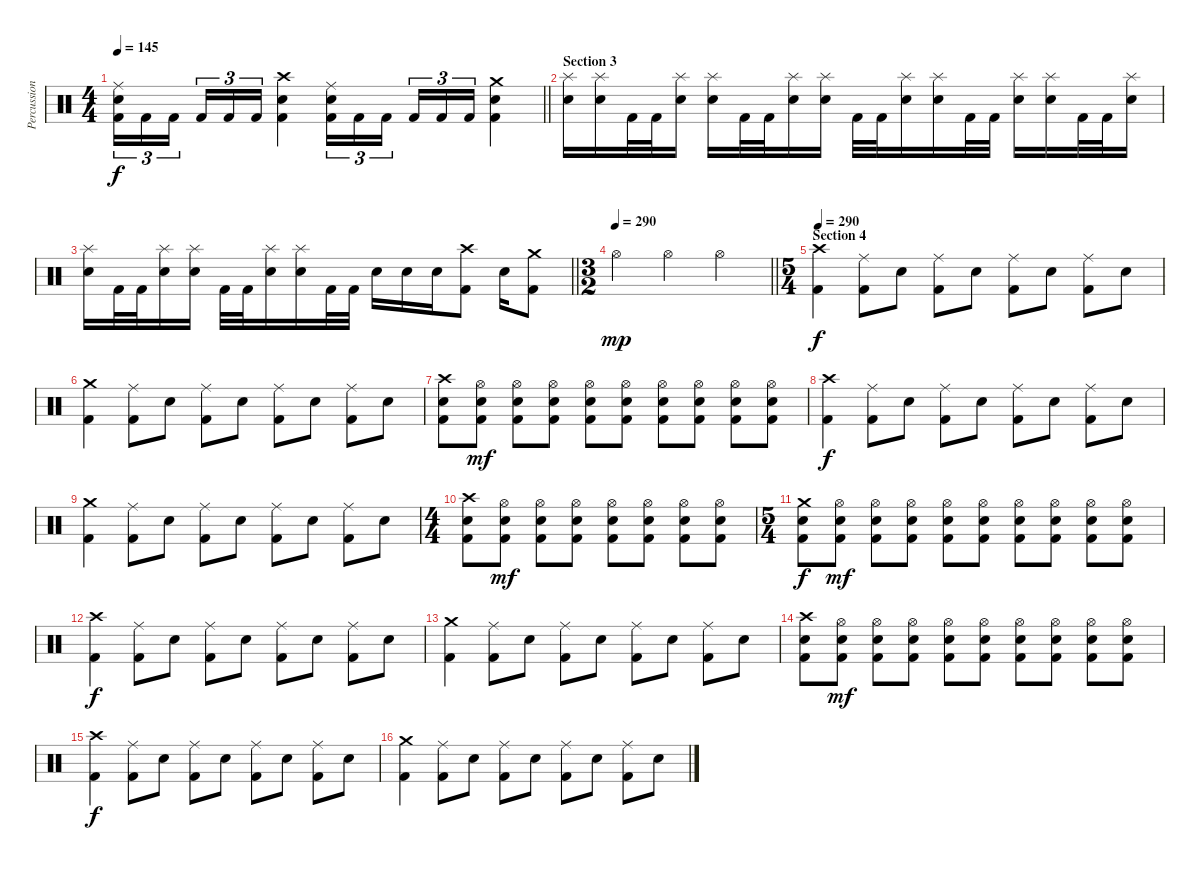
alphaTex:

\track ("Percussion" "Percussion") {instrument percussion}
\staff {score}
\articulation defaults
\ts (4 4)
\tempo 145
\clef neutral
\barLineRight lightlight
\ks c
("Ride (middle)" "Electric Snare (hit)" "Kick (hit) 2").16{tu (3 2) dy f} "Kick (hit) 2".16{tu (3 2)} "Kick (hit) 2".16{tu (3 2) beam splitsecondary} "Kick (hit) 2".16{tu (3 2)} "Kick (hit) 2".16{tu (3 2)} "Kick (hit) 2".16{tu (3 2)} ("Crash high (hit)" "Electric Snare (hit)" "Kick (hit) 2").4 ("Ride (middle)" "Electric Snare (hit)" "Kick (hit) 2").16{tu (3 2)} "Kick (hit) 2".16{tu (3 2)} "Kick (hit) 2".16{tu (3 2) beam splitsecondary} "Kick (hit) 2".16{tu (3 2)} "Kick (hit) 2".16{tu (3 2)} "Kick (hit) 2".16{tu (3 2)} ("Crash medium (hit)" "Electric Snare (hit)" "Kick (hit) 2").4 |
\section ("" "Section 3")
("Splash (hit)" "Electric Snare (hit)").16 ("Splash (hit)" "Electric Snare (hit)").16 "Kick (hit) 2".32 "Kick (hit) 2".32 ("Splash (hit)" "Electric Snare (hit)").16 ("Splash (hit)" "Electric Snare (hit)").16 "Kick (hit) 2".32 "Kick (hit) 2".32 ("Splash (hit)" "Electric Snare (hit)").16 ("Splash (hit)" "Electric Snare (hit)").16 "Kick (hit) 2".32 "Kick (hit) 2".32 ("Splash (hit)" "Electric Snare (hit)").16 ("Splash (hit)" "Electric Snare (hit)").16 "Kick (hit) 2".32 "Kick (hit) 2".32 ("Splash (hit)" "Electric Snare (hit)").16 ("Splash (hit)" "Electric Snare (hit)").16 "Kick (hit) 2".32 "Kick (hit) 2".32 ("Splash (hit)" "Electric Snare (hit)").16 |
\barLineRight lightlight
("Splash (hit)" "Electric Snare (hit)").16 "Kick (hit) 2".32 "Kick (hit) 2".32 ("Splash (hit)" "Electric Snare (hit)").16 ("Splash (hit)" "Electric Snare (hit)").16 "Kick (hit) 2".32 "Kick (hit) 2".32 ("Splash (hit)" "Electric Snare (hit)").16 ("Splash (hit)" "Electric Snare (hit)").16 "Kick (hit) 2".32 "Kick (hit) 2".32 "Electric Snare (hit)".16 "Electric Snare (hit)".16 "Electric Snare (hit)".16 ("Crash high (hit)" "Kick (hit) 2").8 "Electric Snare (hit)".16 ("Crash medium (hit)" "Kick (hit) 2").8 |
\ts (3 2)
\tempo 290
\barLineRight lightlight "Hi-Hat (open)".2{dy mp} "Hi-Hat (open)".2 "Hi-Hat (open)".2
|
\ts (5 4)
\section ("" "Section 4")
\tempo 290
("Crash high (hit)" "Kick (hit) 2").4{dy f} ("Ride (middle)" "Kick (hit) 2").8 "Electric Snare (hit)".8 ("Ride (middle)" "Kick (hit) 2").8 "Electric Snare (hit)".8 ("Ride (middle)" "Kick (hit) 2").8 "Electric Snare (hit)".8 ("Ride (middle)" "Kick (hit) 2").8 "Electric Snare (hit)".8 |
("Crash medium (hit)" "Kick (hit) 2").4 ("Ride (middle)" "Kick (hit) 2").8 "Electric Snare (hit)".8 ("Ride (middle)" "Kick (hit) 2").8 "Electric Snare (hit)".8 ("Ride (middle)" "Kick (hit) 2").8 "Electric Snare (hit)".8 ("Ride (middle)" "Kick (hit) 2").8 "Electric Snare (hit)".8 |
("Crash high (hit)" "Electric Snare (hit)" "Kick (hit) 2").8 ("Hi-Hat (open)" "Electric Snare (hit)" "Kick (hit) 2").8{dy mf} ("Hi-Hat (open)" "Electric Snare (hit)" "Kick (hit) 2").8 ("Hi-Hat (open)" "Electric Snare (hit)" "Kick (hit) 2").8 ("Hi-Hat (open)" "Electric Snare (hit)" "Kick (hit) 2").8 ("Hi-Hat (open)" "Electric Snare (hit)" "Kick (hit) 2").8 ("Hi-Hat (open)" "Electric Snare (hit)" "Kick (hit) 2").8 ("Hi-Hat (open)" "Electric Snare (hit)" "Kick (hit) 2").8 ("Hi-Hat (open)" "Electric Snare (hit)" "Kick (hit) 2").8 ("Hi-Hat (open)" "Electric Snare (hit)" "Kick (hit) 2").8 |
("Crash high (hit)" "Kick (hit) 2").4{dy f} ("Ride (middle)" "Kick (hit) 2").8 "Electric Snare (hit)".8 ("Ride (middle)" "Kick (hit) 2").8 "Electric Snare (hit)".8 ("Ride (middle)" "Kick (hit) 2").8 "Electric Snare (hit)".8 ("Ride (middle)" "Kick (hit) 2").8 "Electric Snare (hit)".8 |
("Crash medium (hit)" "Kick (hit) 2").4 ("Ride (middle)" "Kick (hit) 2").8 "Electric Snare (hit)".8 ("Ride (middle)" "Kick (hit) 2").8 "Electric Snare (hit)".8 ("Ride (middle)" "Kick (hit) 2").8 "Electric Snare (hit)".8 ("Ride (middle)" "Kick (hit) 2").8 "Electric Snare (hit)".8 |
\ts (4 4)
("Crash high (hit)" "Electric Snare (hit)" "Kick (hit) 2").8 ("Hi-Hat (open)" "Electric Snare (hit)" "Kick (hit) 2").8{dy mf} ("Hi-Hat (open)" "Electric Snare (hit)" "Kick (hit) 2").8 ("Hi-Hat (open)" "Electric Snare (hit)" "Kick (hit) 2").8 ("Hi-Hat (open)" "Electric Snare (hit)" "Kick (hit) 2").8 ("Hi-Hat (open)" "Electric Snare (hit)" "Kick (hit) 2").8 ("Hi-Hat (open)" "Electric Snare (hit)" "Kick (hit) 2").8 ("Hi-Hat (open)" "Electric Snare (hit)" "Kick (hit) 2").8 |
\ts (5 4)
("Crash medium (hit)" "Electric Snare (hit)" "Kick (hit) 2").8{dy f} ("Hi-Hat (open)" "Electric Snare (hit)" "Kick (hit) 2").8{dy mf} ("Hi-Hat (open)" "Electric Snare (hit)" "Kick (hit) 2").8 ("Hi-Hat (open)" "Electric Snare (hit)" "Kick (hit) 2").8 ("Hi-Hat (open)" "Electric Snare (hit)" "Kick (hit) 2").8 ("Hi-Hat (open)" "Electric Snare (hit)" "Kick (hit) 2").8 ("Hi-Hat (open)" "Electric Snare (hit)" "Kick (hit) 2").8 ("Hi-Hat (open)" "Electric Snare (hit)" "Kick (hit) 2").8 ("Hi-Hat (open)" "Electric Snare (hit)" "Kick (hit) 2").8 ("Hi-Hat (open)" "Electric Snare (hit)" "Kick (hit) 2").8 |
("Crash high (hit)" "Kick (hit) 2").4{dy f} ("Ride (middle)" "Kick (hit) 2").8 "Electric Snare (hit)".8 ("Ride (middle)" "Kick (hit) 2").8 "Electric Snare (hit)".8 ("Ride (middle)" "Kick (hit) 2").8 "Electric Snare (hit)".8 ("Ride (middle)" "Kick (hit) 2").8 "Electric Snare (hit)".8 |
("Crash medium (hit)" "Kick (hit) 2").4 ("Ride (middle)" "Kick (hit) 2").8 "Electric Snare (hit)".8 ("Ride (middle)" "Kick (hit) 2").8 "Electric Snare (hit)".8 ("Ride (middle)" "Kick (hit) 2").8 "Electric Snare (hit)".8 ("Ride (middle)" "Kick (hit) 2").8 "Electric Snare (hit)".8 |
("Crash high (hit)" "Electric Snare (hit)" "Kick (hit) 2").8 ("Hi-Hat (open)" "Electric Snare (hit)" "Kick (hit) 2").8{dy mf} ("Hi-Hat (open)" "Electric Snare (hit)" "Kick (hit) 2").8 ("Hi-Hat (open)" "Electric Snare (hit)" "Kick (hit) 2").8 ("Hi-Hat (open)" "Electric Snare (hit)" "Kick (hit) 2").8 ("Hi-Hat (open)" "Electric Snare (hit)" "Kick (hit) 2").8 ("Hi-Hat (open)" "Electric Snare (hit)" "Kick (hit) 2").8 ("Hi-Hat (open)" "Electric Snare (hit)" "Kick (hit) 2").8 ("Hi-Hat (open)" "Electric Snare (hit)" "Kick (hit) 2").8 ("Hi-Hat (open)" "Electric Snare (hit)" "Kick (hit) 2").8 |
("Crash high (hit)" "Kick (hit) 2").4{dy f} ("Ride (middle)" "Kick (hit) 2").8 "Electric Snare (hit)".8 ("Ride (middle)" "Kick (hit) 2").8 "Electric Snare (hit)".8 ("Ride (middle)" "Kick (hit) 2").8 "Electric Snare (hit)".8 ("Ride (middle)" "Kick (hit) 2").8 "Electric Snare (hit)".8 |
("Crash medium (hit)" "Kick (hit) 2").4 ("Ride (middle)" "Kick (hit) 2").8 "Electric Snare (hit)".8 ("Ride (middle)" "Kick (hit) 2").8 "Electric Snare (hit)".8 ("Ride (middle)" "Kick (hit) 2").8 "Electric Snare (hit)".8 ("Ride (middle)" "Kick (hit) 2").8 "Electric Snare (hit)".8
